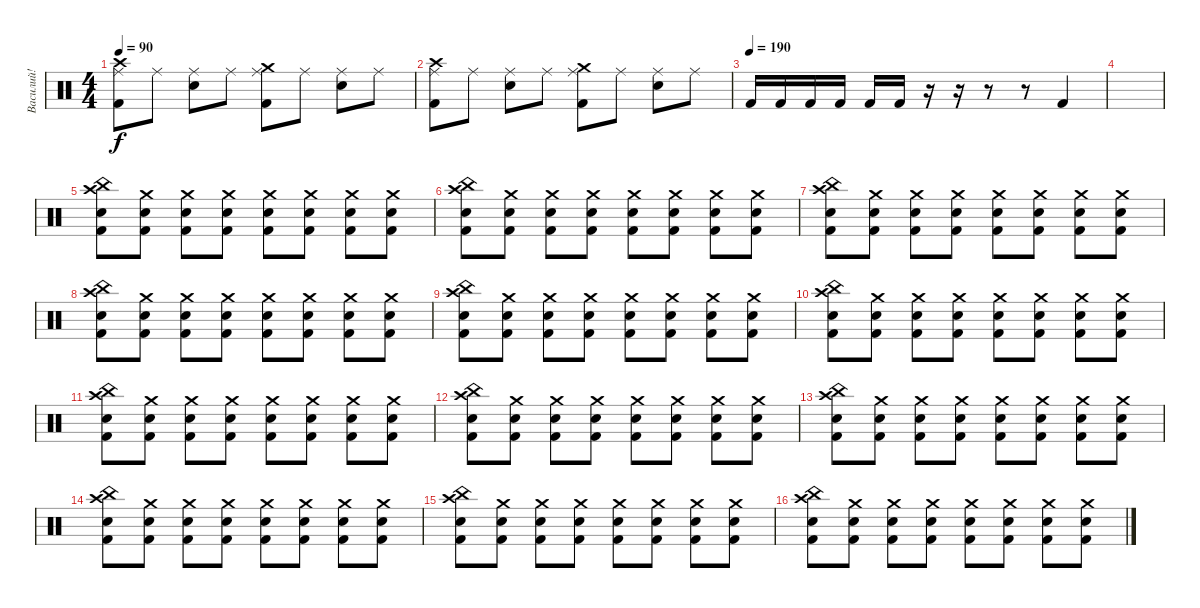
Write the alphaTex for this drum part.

\track ("Василий!" "Василий!") {instrument percussion}
\staff {score}
\articulation defaults
\ts (4 4)
\tempo 90
\clef neutral
\ks c
("Ride (middle)" "Kick (hit) 2" "Crash high (hit)").8{dy f} "Ride (middle)".8 ("Ride (middle)" "Electric Snare (hit)").8 "Ride (middle)".8 ("Ride (middle)" "Kick (hit) 2" "Crash medium (hit)").8 "Ride (middle)".8 ("Ride (middle)" "Electric Snare (hit)").8 "Ride (middle)".8 |
("Ride (middle)" "Kick (hit) 2" "Crash high (hit)").8 "Ride (middle)".8 ("Ride (middle)" "Electric Snare (hit)").8 "Ride (middle)".8 ("Ride (middle)" "Kick (hit) 2" "Crash medium (hit)").8 "Ride (middle)".8 ("Ride (middle)" "Electric Snare (hit)").8 "Ride (middle)".8 |
\tempo (190)
"Kick (hit) 2".16 "Kick (hit) 2".16 "Kick (hit) 2".16 "Kick (hit) 2".16 "Kick (hit) 2".16 "Kick (hit) 2".16 r.16 r.16 r.8 r.8 "Kick (hit) 2".4 |
|
("Electric Snare (hit)" "Kick (hit) 2" "China (hit)" "Crash high (hit)").8{volume 7} ("Electric Snare (hit)" "Kick (hit) 2" "Crash medium (hit)").8 ("Electric Snare (hit)" "Kick (hit) 2" "Crash medium (hit)").8 ("Electric Snare (hit)" "Kick (hit) 2" "Crash medium (hit)").8 ("Electric Snare (hit)" "Kick (hit) 2" "Crash medium (hit)").8 ("Electric Snare (hit)" "Kick (hit) 2" "Crash medium (hit)").8 ("Electric Snare (hit)" "Kick (hit) 2" "Crash medium (hit)").8 ("Electric Snare (hit)" "Kick (hit) 2" "Crash medium (hit)").8 |
("Electric Snare (hit)" "Kick (hit) 2" "China (hit)" "Crash high (hit)").8 ("Electric Snare (hit)" "Kick (hit) 2" "Crash medium (hit)").8 ("Electric Snare (hit)" "Kick (hit) 2" "Crash medium (hit)").8 ("Electric Snare (hit)" "Kick (hit) 2" "Crash medium (hit)").8 ("Electric Snare (hit)" "Kick (hit) 2" "Crash medium (hit)").8 ("Electric Snare (hit)" "Kick (hit) 2" "Crash medium (hit)").8 ("Electric Snare (hit)" "Kick (hit) 2" "Crash medium (hit)").8 ("Electric Snare (hit)" "Kick (hit) 2" "Crash medium (hit)").8 |
("Electric Snare (hit)" "Kick (hit) 2" "China (hit)" "Crash high (hit)").8 ("Electric Snare (hit)" "Kick (hit) 2" "Crash medium (hit)").8 ("Electric Snare (hit)" "Kick (hit) 2" "Crash medium (hit)").8 ("Electric Snare (hit)" "Kick (hit) 2" "Crash medium (hit)").8 ("Electric Snare (hit)" "Kick (hit) 2" "Crash medium (hit)").8 ("Electric Snare (hit)" "Kick (hit) 2" "Crash medium (hit)").8 ("Electric Snare (hit)" "Kick (hit) 2" "Crash medium (hit)").8 ("Electric Snare (hit)" "Kick (hit) 2" "Crash medium (hit)").8 |
("Electric Snare (hit)" "Kick (hit) 2" "China (hit)" "Crash high (hit)").8 ("Electric Snare (hit)" "Kick (hit) 2" "Crash medium (hit)").8 ("Electric Snare (hit)" "Kick (hit) 2" "Crash medium (hit)").8 ("Electric Snare (hit)" "Kick (hit) 2" "Crash medium (hit)").8 ("Electric Snare (hit)" "Kick (hit) 2" "Crash medium (hit)").8 ("Electric Snare (hit)" "Kick (hit) 2" "Crash medium (hit)").8 ("Electric Snare (hit)" "Kick (hit) 2" "Crash medium (hit)").8 ("Electric Snare (hit)" "Kick (hit) 2" "Crash medium (hit)").8 |
("Electric Snare (hit)" "Kick (hit) 2" "China (hit)" "Crash high (hit)").8 ("Electric Snare (hit)" "Kick (hit) 2" "Crash medium (hit)").8 ("Electric Snare (hit)" "Kick (hit) 2" "Crash medium (hit)").8 ("Electric Snare (hit)" "Kick (hit) 2" "Crash medium (hit)").8 ("Electric Snare (hit)" "Kick (hit) 2" "Crash medium (hit)").8 ("Electric Snare (hit)" "Kick (hit) 2" "Crash medium (hit)").8 ("Electric Snare (hit)" "Kick (hit) 2" "Crash medium (hit)").8 ("Electric Snare (hit)" "Kick (hit) 2" "Crash medium (hit)").8 |
("Electric Snare (hit)" "Kick (hit) 2" "China (hit)" "Crash high (hit)").8 ("Electric Snare (hit)" "Kick (hit) 2" "Crash medium (hit)").8 ("Electric Snare (hit)" "Kick (hit) 2" "Crash medium (hit)").8 ("Electric Snare (hit)" "Kick (hit) 2" "Crash medium (hit)").8 ("Electric Snare (hit)" "Kick (hit) 2" "Crash medium (hit)").8 ("Electric Snare (hit)" "Kick (hit) 2" "Crash medium (hit)").8 ("Electric Snare (hit)" "Kick (hit) 2" "Crash medium (hit)").8 ("Electric Snare (hit)" "Kick (hit) 2" "Crash medium (hit)").8 |
("Electric Snare (hit)" "Kick (hit) 2" "China (hit)" "Crash high (hit)").8 ("Electric Snare (hit)" "Kick (hit) 2" "Crash medium (hit)").8 ("Electric Snare (hit)" "Kick (hit) 2" "Crash medium (hit)").8 ("Electric Snare (hit)" "Kick (hit) 2" "Crash medium (hit)").8 ("Electric Snare (hit)" "Kick (hit) 2" "Crash medium (hit)").8 ("Electric Snare (hit)" "Kick (hit) 2" "Crash medium (hit)").8 ("Electric Snare (hit)" "Kick (hit) 2" "Crash medium (hit)").8 ("Electric Snare (hit)" "Kick (hit) 2" "Crash medium (hit)").8 |
("Electric Snare (hit)" "Kick (hit) 2" "China (hit)" "Crash high (hit)").8 ("Electric Snare (hit)" "Kick (hit) 2" "Crash medium (hit)").8 ("Electric Snare (hit)" "Kick (hit) 2" "Crash medium (hit)").8 ("Electric Snare (hit)" "Kick (hit) 2" "Crash medium (hit)").8 ("Electric Snare (hit)" "Kick (hit) 2" "Crash medium (hit)").8 ("Electric Snare (hit)" "Kick (hit) 2" "Crash medium (hit)").8 ("Electric Snare (hit)" "Kick (hit) 2" "Crash medium (hit)").8 ("Electric Snare (hit)" "Kick (hit) 2" "Crash medium (hit)").8 |
("Electric Snare (hit)" "Kick (hit) 2" "China (hit)" "Crash high (hit)").8{volume 3} ("Electric Snare (hit)" "Kick (hit) 2" "Crash medium (hit)").8 ("Electric Snare (hit)" "Kick (hit) 2" "Crash medium (hit)").8 ("Electric Snare (hit)" "Kick (hit) 2" "Crash medium (hit)").8 ("Electric Snare (hit)" "Kick (hit) 2" "Crash medium (hit)").8 ("Electric Snare (hit)" "Kick (hit) 2" "Crash medium (hit)").8 ("Electric Snare (hit)" "Kick (hit) 2" "Crash medium (hit)").8 ("Electric Snare (hit)" "Kick (hit) 2" "Crash medium (hit)").8 |
("Electric Snare (hit)" "Kick (hit) 2" "China (hit)" "Crash high (hit)").8 ("Electric Snare (hit)" "Kick (hit) 2" "Crash medium (hit)").8 ("Electric Snare (hit)" "Kick (hit) 2" "Crash medium (hit)").8 ("Electric Snare (hit)" "Kick (hit) 2" "Crash medium (hit)").8 ("Electric Snare (hit)" "Kick (hit) 2" "Crash medium (hit)").8 ("Electric Snare (hit)" "Kick (hit) 2" "Crash medium (hit)").8 ("Electric Snare (hit)" "Kick (hit) 2" "Crash medium (hit)").8 ("Electric Snare (hit)" "Kick (hit) 2" "Crash medium (hit)").8 |
("Electric Snare (hit)" "Kick (hit) 2" "China (hit)" "Crash high (hit)").8 ("Electric Snare (hit)" "Kick (hit) 2" "Crash medium (hit)").8 ("Electric Snare (hit)" "Kick (hit) 2" "Crash medium (hit)").8 ("Electric Snare (hit)" "Kick (hit) 2" "Crash medium (hit)").8 ("Electric Snare (hit)" "Kick (hit) 2" "Crash medium (hit)").8 ("Electric Snare (hit)" "Kick (hit) 2" "Crash medium (hit)").8 ("Electric Snare (hit)" "Kick (hit) 2" "Crash medium (hit)").8 ("Electric Snare (hit)" "Kick (hit) 2" "Crash medium (hit)").8 |
("Electric Snare (hit)" "Kick (hit) 2" "China (hit)" "Crash high (hit)").8 ("Electric Snare (hit)" "Kick (hit) 2" "Crash medium (hit)").8 ("Electric Snare (hit)" "Kick (hit) 2" "Crash medium (hit)").8 ("Electric Snare (hit)" "Kick (hit) 2" "Crash medium (hit)").8 ("Electric Snare (hit)" "Kick (hit) 2" "Crash medium (hit)").8 ("Electric Snare (hit)" "Kick (hit) 2" "Crash medium (hit)").8 ("Electric Snare (hit)" "Kick (hit) 2" "Crash medium (hit)").8 ("Electric Snare (hit)" "Kick (hit) 2" "Crash medium (hit)").8
